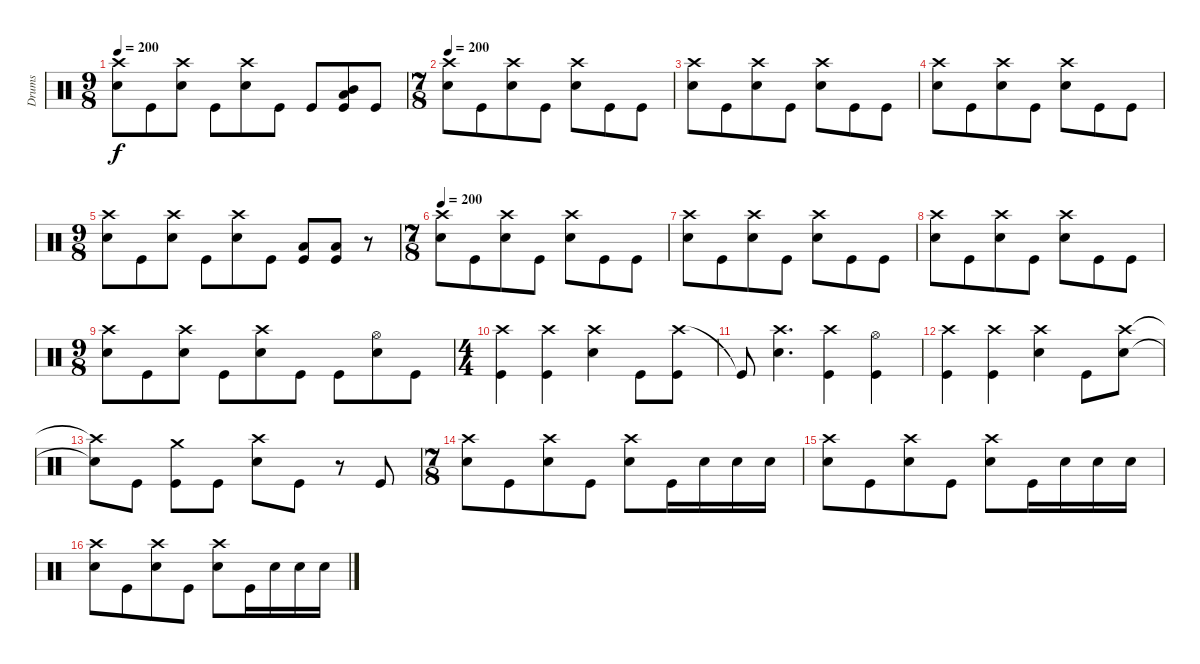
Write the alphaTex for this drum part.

\track ("Drums" "Drums") {instrument percussion}
\staff {score}
\articulation defaults
\ts (9 8)
\tempo 200
\clef neutral
\ks c
("Crash high (hit)" "Snare (hit) 2").8{dy f} "Kick (hit)".8 ("Crash high (hit)" "Snare (hit) 2").8 "Kick (hit)".8 ("Crash high (hit)" "Snare (hit) 2").8 "Kick (hit)".8 "Kick (hit)".8 ("Mid Tom (hit)" "Low Tom (hit)" "Kick (hit)").8 "Kick (hit)".8 |
\ts (7 8)
\tempo 200
("Crash high (hit)" "Snare (hit) 2").8 "Kick (hit)".8 ("Crash high (hit)" "Snare (hit) 2").8 "Kick (hit)".8 ("Crash high (hit)" "Snare (hit) 2").8 "Kick (hit)".8 "Kick (hit)".8 |
("Crash high (hit)" "Snare (hit) 2").8 "Kick (hit)".8 ("Crash high (hit)" "Snare (hit) 2").8 "Kick (hit)".8 ("Crash high (hit)" "Snare (hit) 2").8 "Kick (hit)".8 "Kick (hit)".8 |
("Crash high (hit)" "Snare (hit) 2").8 "Kick (hit)".8 ("Crash high (hit)" "Snare (hit) 2").8 "Kick (hit)".8 ("Crash high (hit)" "Snare (hit) 2").8 "Kick (hit)".8 "Kick (hit)".8 |
\ts (9 8)
("Crash high (hit)" "Snare (hit) 2").8 "Kick (hit)".8 ("Crash high (hit)" "Snare (hit) 2").8 "Kick (hit)".8 ("Crash high (hit)" "Snare (hit) 2").8 "Kick (hit)".8 ("Low Tom (hit)" "Kick (hit)").8 ("Low Tom (hit)" "Kick (hit)").8 r.8 |
\ts (7 8)
\tempo 200
("Crash high (hit)" "Snare (hit) 2").8 "Kick (hit)".8 ("Crash high (hit)" "Snare (hit) 2").8 "Kick (hit)".8 ("Crash high (hit)" "Snare (hit) 2").8 "Kick (hit)".8 "Kick (hit)".8 |
("Crash high (hit)" "Snare (hit) 2").8 "Kick (hit)".8 ("Crash high (hit)" "Snare (hit) 2").8 "Kick (hit)".8 ("Crash high (hit)" "Snare (hit) 2").8 "Kick (hit)".8 "Kick (hit)".8 |
("Crash high (hit)" "Snare (hit) 2").8 "Kick (hit)".8 ("Crash high (hit)" "Snare (hit) 2").8 "Kick (hit)".8 ("Crash high (hit)" "Snare (hit) 2").8 "Kick (hit)".8 "Kick (hit)".8 |
\ts (9 8)
("Crash high (hit)" "Snare (hit) 2").8 "Kick (hit)".8 ("Crash high (hit)" "Snare (hit) 2").8 "Kick (hit)".8 ("Crash high (hit)" "Snare (hit) 2").8 "Kick (hit)".8 "Kick (hit)".8 ("Hi-Hat (open)" "Snare (hit) 2").8 "Kick (hit)".8 |
\ts (4 4)
("Crash high (hit)" "Kick (hit)").4 ("Crash high (hit)" "Kick (hit)").4 ("Crash high (hit)" "Snare (hit) 2").4 "Kick (hit)".8 ("Crash high (hit)" "Kick (hit)").8 |
"Kick (hit)"{t}.8 ("Crash high (hit)" "Snare (hit) 2").4{d} ("Crash high (hit)" "Kick (hit)").4 ("Hi-Hat (open)" "Kick (hit)").4 |
("Crash high (hit)" "Kick (hit)").4 ("Crash high (hit)" "Kick (hit)").4 ("Crash high (hit)" "Snare (hit) 2").4 "Kick (hit)".8 ("Crash high (hit)" "Snare (hit) 2").8 |
("Crash high (hit)"{t} "Snare (hit) 2"{t}).8 "Kick (hit)".8 ("Crash medium (hit)" "Kick (hit)").8 "Kick (hit)".8 ("Crash high (hit)" "Snare (hit) 2").8 "Kick (hit)".8 r.8 "Kick (hit)".8 |
\ts (7 8)
("Crash high (hit)" "Snare (hit) 2").8 "Kick (hit)".8 ("Crash high (hit)" "Snare (hit) 2").8 "Kick (hit)".8 ("Crash high (hit)" "Snare (hit) 2").8 "Kick (hit)".16 "Snare (hit) 2".16 "Snare (hit) 2".16 "Snare (hit) 2".16 |
("Crash high (hit)" "Snare (hit) 2").8 "Kick (hit)".8 ("Crash high (hit)" "Snare (hit) 2").8 "Kick (hit)".8 ("Crash high (hit)" "Snare (hit) 2").8 "Kick (hit)".16 "Snare (hit) 2".16 "Snare (hit) 2".16 "Snare (hit) 2".16 |
("Crash high (hit)" "Snare (hit) 2").8 "Kick (hit)".8 ("Crash high (hit)" "Snare (hit) 2").8 "Kick (hit)".8 ("Crash high (hit)" "Snare (hit) 2").8 "Kick (hit)".16 "Snare (hit) 2".16 "Snare (hit) 2".16 "Snare (hit) 2".16
